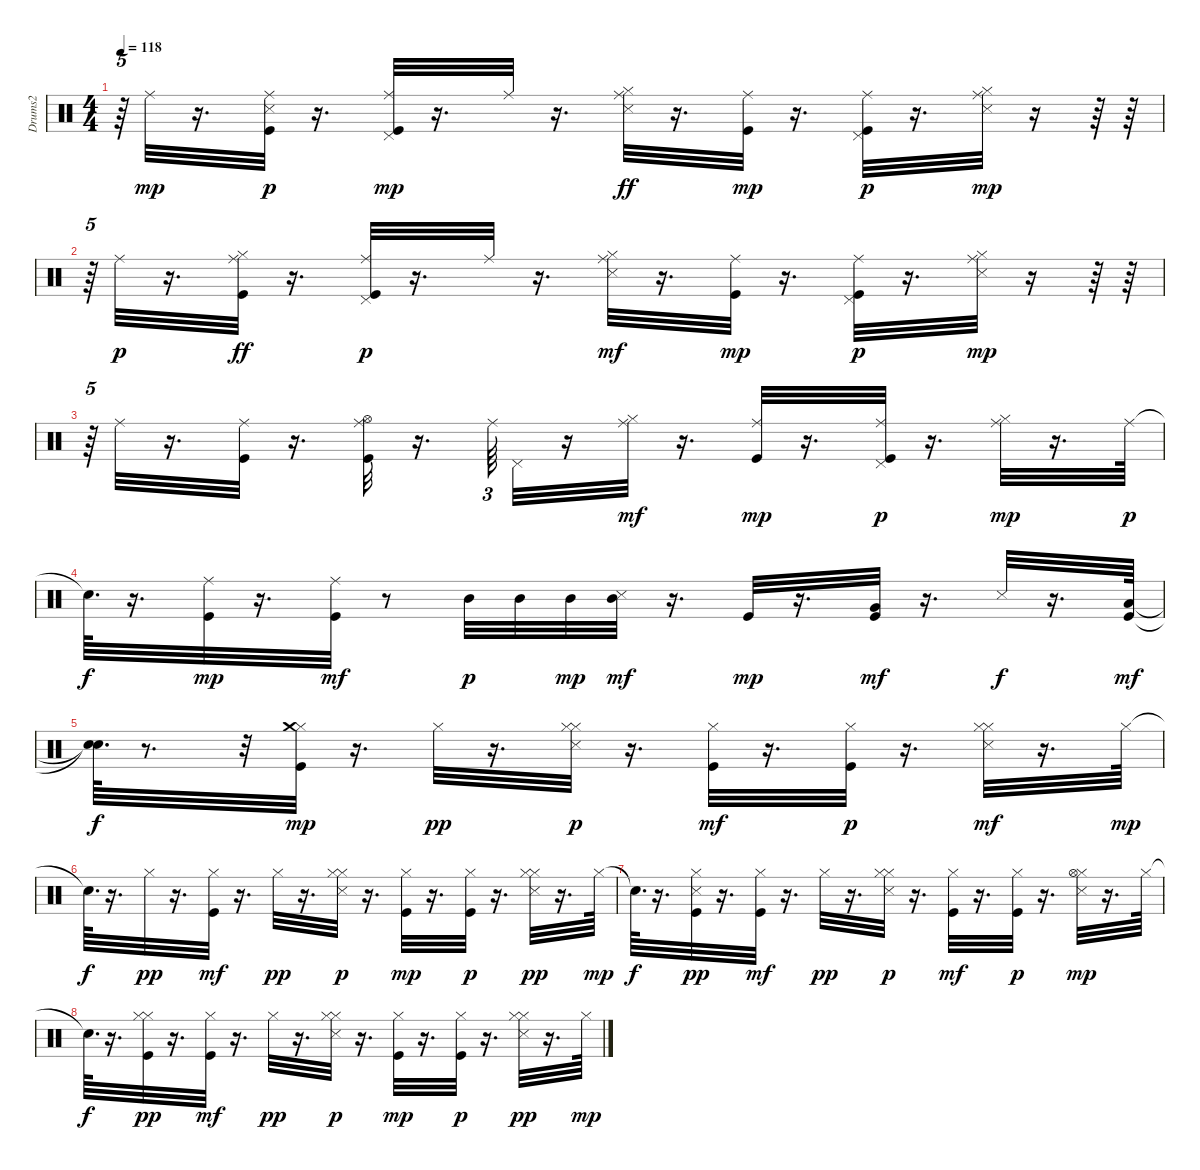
\track ("Drums2" "Drums2") {instrument percussion}
\staff {score}
\articulation defaults
\ts (4 4)
\tempo 118
\clef neutral
\ks c
r.64{tu (5 4) dy mp} "Ride (middle)".32 r.16{d} ("Kick (hit)" "Snare (side stick) 3" "Ride (middle)").32{dy p} r.16{d} ("Kick (hit)" "Pedal Hi-Hat (hit)" "Ride (middle)").32{dy mp} r.16{d} "Ride (middle)".32 r.16{d} ("Hi-Hat (closed)" "Snare (side stick) 3" "Ride (middle)").32{dy ff} r.16{d} ("Ride (middle)" "Kick (hit)").32{dy mp} r.16{d} ("Kick (hit)" "Pedal Hi-Hat (hit)" "Ride (middle)").32{dy p} r.16{d} ("Hi-Hat (closed)" "Snare (side stick) 3" "Ride (middle)").32{dy mp} r.16 r.64 r.64 |
r.64{tu (5 4)} "Ride (middle)".32{dy p} r.16{d} ("Hi-Hat (closed)" "Kick (hit)" "Ride (middle)").32{dy ff} r.16{d} ("Kick (hit)" "Pedal Hi-Hat (hit)" "Ride (middle)").32{dy p} r.16{d} "Ride (middle)".32 r.16{d} ("Hi-Hat (closed)" "Snare (side stick) 3" "Ride (middle)").32{dy mf} r.16{d} ("Ride (middle)" "Kick (hit)").32{dy mp} r.16{d} ("Kick (hit)" "Pedal Hi-Hat (hit)" "Ride (middle)").32{dy p} r.16{d} ("Hi-Hat (closed)" "Snare (side stick) 3" "Ride (middle)").32{dy mp} r.16 r.64 r.64 |
r.64{tu (5 4)} "Ride (middle)".32 r.16{d} ("Ride (middle)" "Kick (hit)").32 r.16{d} ("Kick (hit)" "Hi-Hat (open)" "Ride (middle)").32 r.16{d} "Ride (middle)".64{tu (3 2)} "Pedal Hi-Hat (hit)".32 r.16 ("Ride (middle)" "Hi-Hat (closed)").32{dy mf} r.16{d} ("Ride (middle)" "Kick (hit)").32{dy mp} r.16{d} ("Kick (hit)" "Pedal Hi-Hat (hit)" "Ride (middle)").32{dy p} r.16{d} ("Ride (middle)" "Hi-Hat (closed)").32{dy mp} r.16{d} "Ride (middle)".64{dy p} |
"Snare (hit)"{t}.64{d dy f} r.16{d} ("Ride (middle)" "Kick (hit)").32{dy mp} r.16{d} ("Ride (middle)" "Kick (hit)").32{dy mf} r.8 "Mid Tom (hit)".32{dy p} "Mid Tom (hit)".32 "Mid Tom (hit)".32{dy mp} ("Snare (side stick) 3" "Mid Tom (hit)").32{dy mf} r.16{d} "Kick (hit)".32{dy mp} r.16{d} ("Kick (hit)" "Very Low Tom (hit)").32{dy mf} r.16{d} "Snare (side stick) 3".32{dy f} r.16{d} ("Kick (hit)" "Low Floor Tom (hit)").64{dy mf} |
("Snare (hit)"{t} "Snare (hit)"{t}).64{d dy f} r.8{d} r.32 ("Kick (hit)" "Hi-Hat (closed)" "Crash medium (hit)").32{dy mp} r.16{d} "Hi-Hat (closed)".32{dy pp} r.16{d} ("Hi-Hat (closed)" "Snare (side stick) 3" "Hi-Hat (closed)").32{dy p} r.16{d} ("Kick (hit)" "Hi-Hat (closed)").32{dy mf} r.16{d} ("Kick (hit)" "Hi-Hat (closed)").32{dy p} r.16{d} ("Hi-Hat (closed)" "Snare (side stick) 3" "Hi-Hat (closed)").32{dy mf} r.16{d} "Hi-Hat (closed)".64{dy mp} |
"Snare (hit)"{t}.64{d dy f} r.16{d} "Hi-Hat (closed)".32{dy pp} r.16{d} ("Kick (hit)" "Hi-Hat (closed)").32{dy mf} r.16{d} "Hi-Hat (closed)".32{dy pp} r.16{d} ("Hi-Hat (closed)" "Snare (side stick) 3" "Hi-Hat (closed)").32{dy p} r.16{d} ("Kick (hit)" "Hi-Hat (closed)").32{dy mp} r.16{d} ("Kick (hit)" "Hi-Hat (closed)").32{dy p} r.16{d} ("Hi-Hat (closed)" "Snare (side stick) 3" "Hi-Hat (closed)").32{dy pp} r.16{d} "Hi-Hat (closed)".64{dy mp} |
"Snare (hit)"{t}.64{d dy f} r.16{d} ("Kick (hit)" "Snare (side stick) 3" "Hi-Hat (closed)").32{dy pp} r.16{d} ("Kick (hit)" "Hi-Hat (closed)").32{dy mf} r.16{d} "Hi-Hat (closed)".32{dy pp} r.16{d} ("Hi-Hat (closed)" "Snare (side stick) 3" "Hi-Hat (closed)").32{dy p} r.16{d} ("Kick (hit)" "Hi-Hat (closed)").32{dy mf} r.16{d} ("Kick (hit)" "Hi-Hat (closed)").32{dy p} r.16{d} ("Hi-Hat (closed)" "Snare (side stick) 3" "Hi-Hat (open)").32{dy mp} r.16{d} "Hi-Hat (closed)".64 |
"Snare (hit)"{t}.64{d dy f} r.16{d} ("Hi-Hat (closed)" "Kick (hit)" "Hi-Hat (closed)").32{dy pp} r.16{d} ("Kick (hit)" "Hi-Hat (closed)").32{dy mf} r.16{d} "Hi-Hat (closed)".32{dy pp} r.16{d} ("Hi-Hat (closed)" "Snare (side stick) 3" "Hi-Hat (closed)").32{dy p} r.16{d} ("Kick (hit)" "Hi-Hat (closed)").32{dy mp} r.16{d} ("Kick (hit)" "Hi-Hat (closed)").32{dy p} r.16{d} ("Hi-Hat (closed)" "Snare (side stick) 3" "Hi-Hat (closed)").32{dy pp} r.16{d} "Hi-Hat (closed)".64{dy mp}
